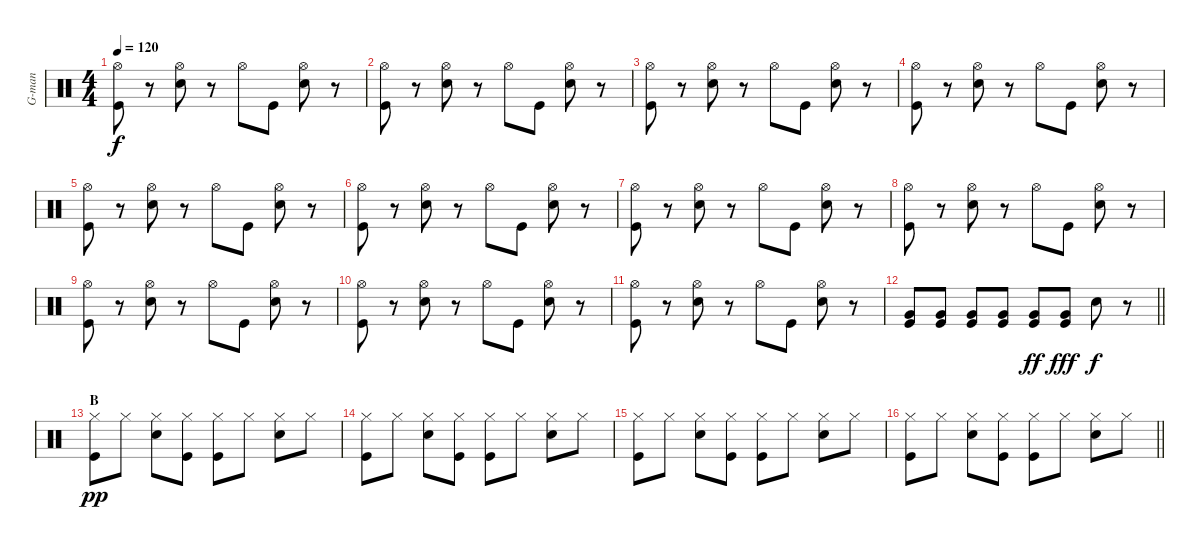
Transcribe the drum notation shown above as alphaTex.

\track ("G-man" "G-man") {instrument percussion}
\staff {score}
\articulation defaults
\ts (4 4)
\tempo 120
\clef neutral
\ks c
("Hi-Hat (open)" "Kick (hit)").8{dy f} r.8 ("Hi-Hat (open)" "Snare (hit) 2").8 r.8 "Hi-Hat (open)".8 "Kick (hit)".8 ("Hi-Hat (open)" "Snare (hit) 2").8 r.8 |
("Hi-Hat (open)" "Kick (hit)").8 r.8 ("Hi-Hat (open)" "Snare (hit) 2").8 r.8 "Hi-Hat (open)".8 "Kick (hit)".8 ("Hi-Hat (open)" "Snare (hit) 2").8 r.8 |
("Hi-Hat (open)" "Kick (hit)").8 r.8 ("Hi-Hat (open)" "Snare (hit) 2").8 r.8 "Hi-Hat (open)".8 "Kick (hit)".8 ("Hi-Hat (open)" "Snare (hit) 2").8 r.8 |
("Hi-Hat (open)" "Kick (hit)").8 r.8 ("Hi-Hat (open)" "Snare (hit) 2").8 r.8 "Hi-Hat (open)".8 "Kick (hit)".8 ("Hi-Hat (open)" "Snare (hit) 2").8 r.8 |
("Hi-Hat (open)" "Kick (hit)").8 r.8 ("Hi-Hat (open)" "Snare (hit) 2").8 r.8 "Hi-Hat (open)".8 "Kick (hit)".8 ("Hi-Hat (open)" "Snare (hit) 2").8 r.8 |
("Hi-Hat (open)" "Kick (hit)").8 r.8 ("Hi-Hat (open)" "Snare (hit) 2").8 r.8 "Hi-Hat (open)".8 "Kick (hit)".8 ("Hi-Hat (open)" "Snare (hit) 2").8 r.8 |
("Hi-Hat (open)" "Kick (hit)").8 r.8 ("Hi-Hat (open)" "Snare (hit) 2").8 r.8 "Hi-Hat (open)".8 "Kick (hit)".8 ("Hi-Hat (open)" "Snare (hit) 2").8 r.8 |
("Hi-Hat (open)" "Kick (hit)").8 r.8 ("Hi-Hat (open)" "Snare (hit) 2").8 r.8 "Hi-Hat (open)".8 "Kick (hit)".8 ("Hi-Hat (open)" "Snare (hit) 2").8 r.8 |
("Hi-Hat (open)" "Kick (hit)").8 r.8 ("Hi-Hat (open)" "Snare (hit) 2").8 r.8 "Hi-Hat (open)".8 "Kick (hit)".8 ("Hi-Hat (open)" "Snare (hit) 2").8 r.8 |
("Hi-Hat (open)" "Kick (hit)").8 r.8 ("Hi-Hat (open)" "Snare (hit) 2").8 r.8 "Hi-Hat (open)".8 "Kick (hit)".8 ("Hi-Hat (open)" "Snare (hit) 2").8 r.8 |
("Hi-Hat (open)" "Kick (hit)").8 r.8 ("Hi-Hat (open)" "Snare (hit) 2").8 r.8 "Hi-Hat (open)".8 "Kick (hit)".8 ("Hi-Hat (open)" "Snare (hit) 2").8 r.8 |
\barLineRight lightlight
("Very Low Tom (hit)" "Kick (hit)").8 ("Very Low Tom (hit)" "Kick (hit)").8 ("Very Low Tom (hit)" "Kick (hit)").8 ("Very Low Tom (hit)" "Kick (hit)").8 ("Very Low Tom (hit)" "Kick (hit)").8{dy ff} ("Very Low Tom (hit)" "Kick (hit)").8{dy fff} "Snare (hit) 2".8{dy f} r.8 |
\section ("" "B")
("Hi-Hat (closed)" "Kick (hit)").8{dy pp} "Hi-Hat (closed)".8 ("Hi-Hat (closed)" "Snare (hit) 2").8 ("Hi-Hat (closed)" "Kick (hit)").8 ("Hi-Hat (closed)" "Kick (hit)").8 "Hi-Hat (closed)".8 ("Hi-Hat (closed)" "Snare (hit) 2").8 "Hi-Hat (closed)".8 |
("Hi-Hat (closed)" "Kick (hit)").8 "Hi-Hat (closed)".8 ("Hi-Hat (closed)" "Snare (hit) 2").8 ("Hi-Hat (closed)" "Kick (hit)").8 ("Hi-Hat (closed)" "Kick (hit)").8 "Hi-Hat (closed)".8 ("Hi-Hat (closed)" "Snare (hit) 2").8 "Hi-Hat (closed)".8 |
("Hi-Hat (closed)" "Kick (hit)").8 "Hi-Hat (closed)".8 ("Hi-Hat (closed)" "Snare (hit) 2").8 ("Hi-Hat (closed)" "Kick (hit)").8 ("Hi-Hat (closed)" "Kick (hit)").8 "Hi-Hat (closed)".8 ("Hi-Hat (closed)" "Snare (hit) 2").8 "Hi-Hat (closed)".8 |
\barLineRight lightlight
("Hi-Hat (closed)" "Kick (hit)").8 "Hi-Hat (closed)".8 ("Hi-Hat (closed)" "Snare (hit) 2").8 ("Hi-Hat (closed)" "Kick (hit)").8 ("Hi-Hat (closed)" "Kick (hit)").8 "Hi-Hat (closed)".8 ("Hi-Hat (closed)" "Snare (hit) 2").8 "Hi-Hat (closed)".8
